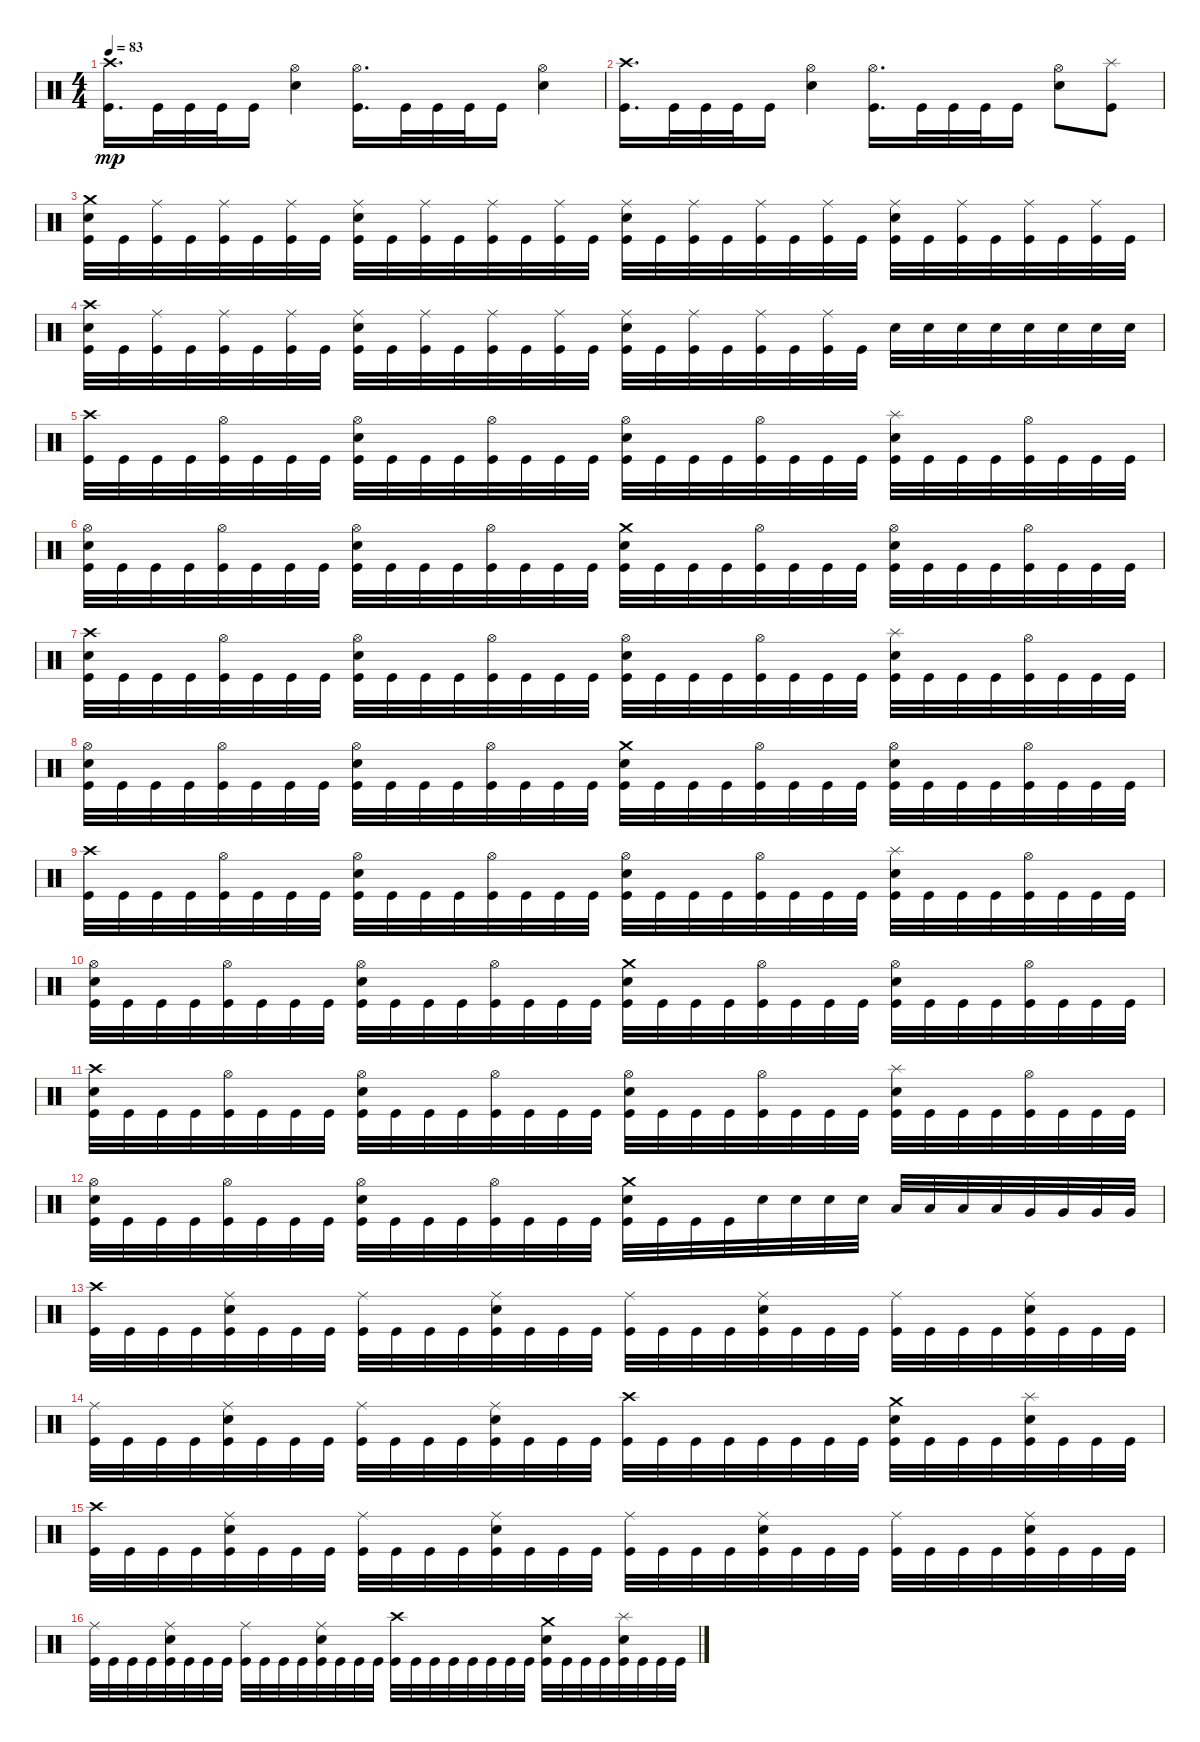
\track "" {instrument percussion}
\staff {score}
\articulation defaults
\ts (4 4)
\tempo 83
\clef neutral
\ks c
("Kick (hit)" "Crash high (hit)").16{d dy mp} "Kick (hit)".32 "Kick (hit)".32 "Kick (hit)".32 "Kick (hit)".16 ("Hi-Hat (open)" "Snare (hit) 2").4 ("Kick (hit)" "Hi-Hat (open)").16{d} "Kick (hit)".32 "Kick (hit)".32 "Kick (hit)".32 "Kick (hit)".16 ("Hi-Hat (open)" "Snare (hit) 2").4 |
("Kick (hit)" "Crash high (hit)").16{d} "Kick (hit)".32 "Kick (hit)".32 "Kick (hit)".32 "Kick (hit)".16 ("Hi-Hat (open)" "Snare (hit) 2").4 ("Kick (hit)" "Hi-Hat (open)").16{d} "Kick (hit)".32 "Kick (hit)".32 "Kick (hit)".32 "Kick (hit)".16 ("Hi-Hat (open)" "Snare (hit) 2").8 ("Kick (hit)" "Splash (hit)").8 |
("Kick (hit)" "Crash medium (hit)" "Snare (hit) 2").32 "Kick (hit)".32 ("Kick (hit)" "Ride (middle)").32 "Kick (hit)".32 ("Kick (hit)" "Ride (middle)").32 "Kick (hit)".32 ("Kick (hit)" "Ride (middle)").32 "Kick (hit)".32 ("Kick (hit)" "Ride (middle)" "Snare (hit) 2").32 "Kick (hit)".32 ("Kick (hit)" "Ride (middle)").32 "Kick (hit)".32 ("Kick (hit)" "Ride (middle)").32 "Kick (hit)".32 ("Kick (hit)" "Ride (middle)").32 "Kick (hit)".32 ("Kick (hit)" "Ride (middle)" "Snare (hit) 2").32 "Kick (hit)".32 ("Kick (hit)" "Ride (middle)").32 "Kick (hit)".32 ("Kick (hit)" "Ride (middle)").32 "Kick (hit)".32 ("Kick (hit)" "Ride (middle)").32 "Kick (hit)".32 ("Kick (hit)" "Ride (middle)" "Snare (hit) 2").32 "Kick (hit)".32 ("Kick (hit)" "Ride (middle)").32 "Kick (hit)".32 ("Kick (hit)" "Ride (middle)").32 "Kick (hit)".32 ("Kick (hit)" "Ride (middle)").32 "Kick (hit)".32 |
("Kick (hit)" "Snare (hit) 2" "Crash high (hit)").32 "Kick (hit)".32 ("Kick (hit)" "Ride (middle)").32 "Kick (hit)".32 ("Kick (hit)" "Ride (middle)").32 "Kick (hit)".32 ("Kick (hit)" "Ride (middle)").32 "Kick (hit)".32 ("Kick (hit)" "Ride (middle)" "Snare (hit) 2").32 "Kick (hit)".32 ("Kick (hit)" "Ride (middle)").32 "Kick (hit)".32 ("Kick (hit)" "Ride (middle)").32 "Kick (hit)".32 ("Kick (hit)" "Ride (middle)").32 "Kick (hit)".32 ("Kick (hit)" "Ride (middle)" "Snare (hit) 2").32 "Kick (hit)".32 ("Kick (hit)" "Ride (middle)").32 "Kick (hit)".32 ("Kick (hit)" "Ride (middle)").32 "Kick (hit)".32 ("Kick (hit)" "Ride (middle)").32 "Kick (hit)".32 "Snare (hit) 2".32 "Snare (hit) 2".32 "Snare (hit) 2".32 "Snare (hit) 2".32 "Snare (hit) 2".32 "Snare (hit) 2".32 "Snare (hit) 2".32 "Snare (hit) 2".32 |
("Kick (hit)" "Crash high (hit)").32 "Kick (hit)".32 "Kick (hit)".32 "Kick (hit)".32 ("Kick (hit)" "Hi-Hat (open)").32 "Kick (hit)".32 "Kick (hit)".32 "Kick (hit)".32 ("Kick (hit)" "Hi-Hat (open)" "Snare (hit) 2").32 "Kick (hit)".32 "Kick (hit)".32 "Kick (hit)".32 ("Kick (hit)" "Hi-Hat (open)").32 "Kick (hit)".32 "Kick (hit)".32 "Kick (hit)".32 ("Kick (hit)" "Hi-Hat (open)" "Snare (hit) 2").32 "Kick (hit)".32 "Kick (hit)".32 "Kick (hit)".32 ("Kick (hit)" "Hi-Hat (open)").32 "Kick (hit)".32 "Kick (hit)".32 "Kick (hit)".32 ("Kick (hit)" "Snare (hit) 2" "Splash (hit)").32 "Kick (hit)".32 "Kick (hit)".32 "Kick (hit)".32 ("Kick (hit)" "Hi-Hat (open)").32 "Kick (hit)".32 "Kick (hit)".32 "Kick (hit)".32 |
("Kick (hit)" "Hi-Hat (open)" "Snare (hit) 2").32 "Kick (hit)".32 "Kick (hit)".32 "Kick (hit)".32 ("Kick (hit)" "Hi-Hat (open)").32 "Kick (hit)".32 "Kick (hit)".32 "Kick (hit)".32 ("Kick (hit)" "Hi-Hat (open)" "Snare (hit) 2").32 "Kick (hit)".32 "Kick (hit)".32 "Kick (hit)".32 ("Kick (hit)" "Hi-Hat (open)").32 "Kick (hit)".32 "Kick (hit)".32 "Kick (hit)".32 ("Kick (hit)" "Crash medium (hit)" "Snare (hit) 2").32 "Kick (hit)".32 "Kick (hit)".32 "Kick (hit)".32 ("Kick (hit)" "Hi-Hat (open)").32 "Kick (hit)".32 "Kick (hit)".32 "Kick (hit)".32 ("Kick (hit)" "Hi-Hat (open)" "Snare (hit) 2").32 "Kick (hit)".32 "Kick (hit)".32 "Kick (hit)".32 ("Kick (hit)" "Hi-Hat (open)").32 "Kick (hit)".32 "Kick (hit)".32 "Kick (hit)".32 |
("Kick (hit)" "Crash high (hit)" "Snare (hit) 2").32 "Kick (hit)".32 "Kick (hit)".32 "Kick (hit)".32 ("Kick (hit)" "Hi-Hat (open)").32 "Kick (hit)".32 "Kick (hit)".32 "Kick (hit)".32 ("Kick (hit)" "Hi-Hat (open)" "Snare (hit) 2").32 "Kick (hit)".32 "Kick (hit)".32 "Kick (hit)".32 ("Kick (hit)" "Hi-Hat (open)").32 "Kick (hit)".32 "Kick (hit)".32 "Kick (hit)".32 ("Kick (hit)" "Hi-Hat (open)" "Snare (hit) 2").32 "Kick (hit)".32 "Kick (hit)".32 "Kick (hit)".32 ("Kick (hit)" "Hi-Hat (open)").32 "Kick (hit)".32 "Kick (hit)".32 "Kick (hit)".32 ("Kick (hit)" "Snare (hit) 2" "Splash (hit)").32 "Kick (hit)".32 "Kick (hit)".32 "Kick (hit)".32 ("Kick (hit)" "Hi-Hat (open)").32 "Kick (hit)".32 "Kick (hit)".32 "Kick (hit)".32 |
("Kick (hit)" "Hi-Hat (open)" "Snare (hit) 2").32 "Kick (hit)".32 "Kick (hit)".32 "Kick (hit)".32 ("Kick (hit)" "Hi-Hat (open)").32 "Kick (hit)".32 "Kick (hit)".32 "Kick (hit)".32 ("Kick (hit)" "Hi-Hat (open)" "Snare (hit) 2").32 "Kick (hit)".32 "Kick (hit)".32 "Kick (hit)".32 ("Kick (hit)" "Hi-Hat (open)").32 "Kick (hit)".32 "Kick (hit)".32 "Kick (hit)".32 ("Kick (hit)" "Crash medium (hit)" "Snare (hit) 2").32 "Kick (hit)".32 "Kick (hit)".32 "Kick (hit)".32 ("Kick (hit)" "Hi-Hat (open)").32 "Kick (hit)".32 "Kick (hit)".32 "Kick (hit)".32 ("Kick (hit)" "Hi-Hat (open)" "Snare (hit) 2").32 "Kick (hit)".32 "Kick (hit)".32 "Kick (hit)".32 ("Kick (hit)" "Hi-Hat (open)").32 "Kick (hit)".32 "Kick (hit)".32 "Kick (hit)".32 |
("Kick (hit)" "Crash high (hit)").32 "Kick (hit)".32 "Kick (hit)".32 "Kick (hit)".32 ("Kick (hit)" "Hi-Hat (open)").32 "Kick (hit)".32 "Kick (hit)".32 "Kick (hit)".32 ("Kick (hit)" "Hi-Hat (open)" "Snare (hit) 2").32 "Kick (hit)".32 "Kick (hit)".32 "Kick (hit)".32 ("Kick (hit)" "Hi-Hat (open)").32 "Kick (hit)".32 "Kick (hit)".32 "Kick (hit)".32 ("Kick (hit)" "Hi-Hat (open)" "Snare (hit) 2").32 "Kick (hit)".32 "Kick (hit)".32 "Kick (hit)".32 ("Kick (hit)" "Hi-Hat (open)").32 "Kick (hit)".32 "Kick (hit)".32 "Kick (hit)".32 ("Kick (hit)" "Snare (hit) 2" "Splash (hit)").32 "Kick (hit)".32 "Kick (hit)".32 "Kick (hit)".32 ("Kick (hit)" "Hi-Hat (open)").32 "Kick (hit)".32 "Kick (hit)".32 "Kick (hit)".32 |
("Kick (hit)" "Hi-Hat (open)" "Snare (hit) 2").32 "Kick (hit)".32 "Kick (hit)".32 "Kick (hit)".32 ("Kick (hit)" "Hi-Hat (open)").32 "Kick (hit)".32 "Kick (hit)".32 "Kick (hit)".32 ("Kick (hit)" "Hi-Hat (open)" "Snare (hit) 2").32 "Kick (hit)".32 "Kick (hit)".32 "Kick (hit)".32 ("Kick (hit)" "Hi-Hat (open)").32 "Kick (hit)".32 "Kick (hit)".32 "Kick (hit)".32 ("Kick (hit)" "Crash medium (hit)" "Snare (hit) 2").32 "Kick (hit)".32 "Kick (hit)".32 "Kick (hit)".32 ("Kick (hit)" "Hi-Hat (open)").32 "Kick (hit)".32 "Kick (hit)".32 "Kick (hit)".32 ("Kick (hit)" "Hi-Hat (open)" "Snare (hit) 2").32 "Kick (hit)".32 "Kick (hit)".32 "Kick (hit)".32 ("Kick (hit)" "Hi-Hat (open)").32 "Kick (hit)".32 "Kick (hit)".32 "Kick (hit)".32 |
("Kick (hit)" "Crash high (hit)" "Snare (hit) 2").32 "Kick (hit)".32 "Kick (hit)".32 "Kick (hit)".32 ("Kick (hit)" "Hi-Hat (open)").32 "Kick (hit)".32 "Kick (hit)".32 "Kick (hit)".32 ("Kick (hit)" "Hi-Hat (open)" "Snare (hit) 2").32 "Kick (hit)".32 "Kick (hit)".32 "Kick (hit)".32 ("Kick (hit)" "Hi-Hat (open)").32 "Kick (hit)".32 "Kick (hit)".32 "Kick (hit)".32 ("Kick (hit)" "Hi-Hat (open)" "Snare (hit) 2").32 "Kick (hit)".32 "Kick (hit)".32 "Kick (hit)".32 ("Kick (hit)" "Hi-Hat (open)").32 "Kick (hit)".32 "Kick (hit)".32 "Kick (hit)".32 ("Kick (hit)" "Snare (hit) 2" "Splash (hit)").32 "Kick (hit)".32 "Kick (hit)".32 "Kick (hit)".32 ("Kick (hit)" "Hi-Hat (open)").32 "Kick (hit)".32 "Kick (hit)".32 "Kick (hit)".32 |
("Kick (hit)" "Hi-Hat (open)" "Snare (hit) 2").32 "Kick (hit)".32 "Kick (hit)".32 "Kick (hit)".32 ("Kick (hit)" "Hi-Hat (open)").32 "Kick (hit)".32 "Kick (hit)".32 "Kick (hit)".32 ("Kick (hit)" "Hi-Hat (open)" "Snare (hit) 2").32 "Kick (hit)".32 "Kick (hit)".32 "Kick (hit)".32 ("Kick (hit)" "Hi-Hat (open)").32 "Kick (hit)".32 "Kick (hit)".32 "Kick (hit)".32 ("Kick (hit)" "Crash medium (hit)" "Snare (hit) 2").32 "Kick (hit)".32 "Kick (hit)".32 "Kick (hit)".32 "Snare (hit) 2".32 "Snare (hit) 2".32 "Snare (hit) 2".32 "Snare (hit) 2".32 "Low Floor Tom (hit)".32 "Low Floor Tom (hit)".32 "Low Floor Tom (hit)".32 "Low Floor Tom (hit)".32 "Very Low Tom (hit)".32 "Very Low Tom (hit)".32 "Very Low Tom (hit)".32 "Very Low Tom (hit)".32 |
("Kick (hit)" "Crash high (hit)").32 "Kick (hit)".32 "Kick (hit)".32 "Kick (hit)".32 ("Snare (hit) 2" "Ride (middle)" "Kick (hit)").32 "Kick (hit)".32 "Kick (hit)".32 "Kick (hit)".32 ("Kick (hit)" "Ride (middle)").32 "Kick (hit)".32 "Kick (hit)".32 "Kick (hit)".32 ("Snare (hit) 2" "Ride (middle)" "Kick (hit)").32 "Kick (hit)".32 "Kick (hit)".32 "Kick (hit)".32 ("Kick (hit)" "Ride (middle)").32 "Kick (hit)".32 "Kick (hit)".32 "Kick (hit)".32 ("Snare (hit) 2" "Ride (middle)" "Kick (hit)").32 "Kick (hit)".32 "Kick (hit)".32 "Kick (hit)".32 ("Kick (hit)" "Ride (middle)").32 "Kick (hit)".32 "Kick (hit)".32 "Kick (hit)".32 ("Snare (hit) 2" "Ride (middle)" "Kick (hit)").32 "Kick (hit)".32 "Kick (hit)".32 "Kick (hit)".32 |
("Kick (hit)" "Ride (middle)").32 "Kick (hit)".32 "Kick (hit)".32 "Kick (hit)".32 ("Snare (hit) 2" "Ride (middle)" "Kick (hit)").32 "Kick (hit)".32 "Kick (hit)".32 "Kick (hit)".32 ("Kick (hit)" "Ride (middle)").32 "Kick (hit)".32 "Kick (hit)".32 "Kick (hit)".32 ("Snare (hit) 2" "Ride (middle)" "Kick (hit)").32 "Kick (hit)".32 "Kick (hit)".32 "Kick (hit)".32 ("Crash high (hit)" "Kick (hit)").32 "Kick (hit)".32 "Kick (hit)".32 "Kick (hit)".32 "Kick (hit)".32 "Kick (hit)".32 "Kick (hit)".32 "Kick (hit)".32 ("Snare (hit) 2" "Crash medium (hit)" "Kick (hit)").32 "Kick (hit)".32 "Kick (hit)".32 "Kick (hit)".32 ("Snare (hit) 2" "Splash (hit)" "Kick (hit)").32 "Kick (hit)".32 "Kick (hit)".32 "Kick (hit)".32 |
("Kick (hit)" "Crash high (hit)").32 "Kick (hit)".32 "Kick (hit)".32 "Kick (hit)".32 ("Snare (hit) 2" "Ride (middle)" "Kick (hit)").32 "Kick (hit)".32 "Kick (hit)".32 "Kick (hit)".32 ("Kick (hit)" "Ride (middle)").32 "Kick (hit)".32 "Kick (hit)".32 "Kick (hit)".32 ("Snare (hit) 2" "Ride (middle)" "Kick (hit)").32 "Kick (hit)".32 "Kick (hit)".32 "Kick (hit)".32 ("Kick (hit)" "Ride (middle)").32 "Kick (hit)".32 "Kick (hit)".32 "Kick (hit)".32 ("Snare (hit) 2" "Ride (middle)" "Kick (hit)").32 "Kick (hit)".32 "Kick (hit)".32 "Kick (hit)".32 ("Kick (hit)" "Ride (middle)").32 "Kick (hit)".32 "Kick (hit)".32 "Kick (hit)".32 ("Snare (hit) 2" "Ride (middle)" "Kick (hit)").32 "Kick (hit)".32 "Kick (hit)".32 "Kick (hit)".32 |
("Kick (hit)" "Ride (middle)").32 "Kick (hit)".32 "Kick (hit)".32 "Kick (hit)".32 ("Snare (hit) 2" "Ride (middle)" "Kick (hit)").32 "Kick (hit)".32 "Kick (hit)".32 "Kick (hit)".32 ("Kick (hit)" "Ride (middle)").32 "Kick (hit)".32 "Kick (hit)".32 "Kick (hit)".32 ("Snare (hit) 2" "Ride (middle)" "Kick (hit)").32 "Kick (hit)".32 "Kick (hit)".32 "Kick (hit)".32 ("Crash high (hit)" "Kick (hit)").32 "Kick (hit)".32 "Kick (hit)".32 "Kick (hit)".32 "Kick (hit)".32 "Kick (hit)".32 "Kick (hit)".32 "Kick (hit)".32 ("Snare (hit) 2" "Crash medium (hit)" "Kick (hit)").32 "Kick (hit)".32 "Kick (hit)".32 "Kick (hit)".32 ("Snare (hit) 2" "Splash (hit)" "Kick (hit)").32 "Kick (hit)".32 "Kick (hit)".32 "Kick (hit)".32
